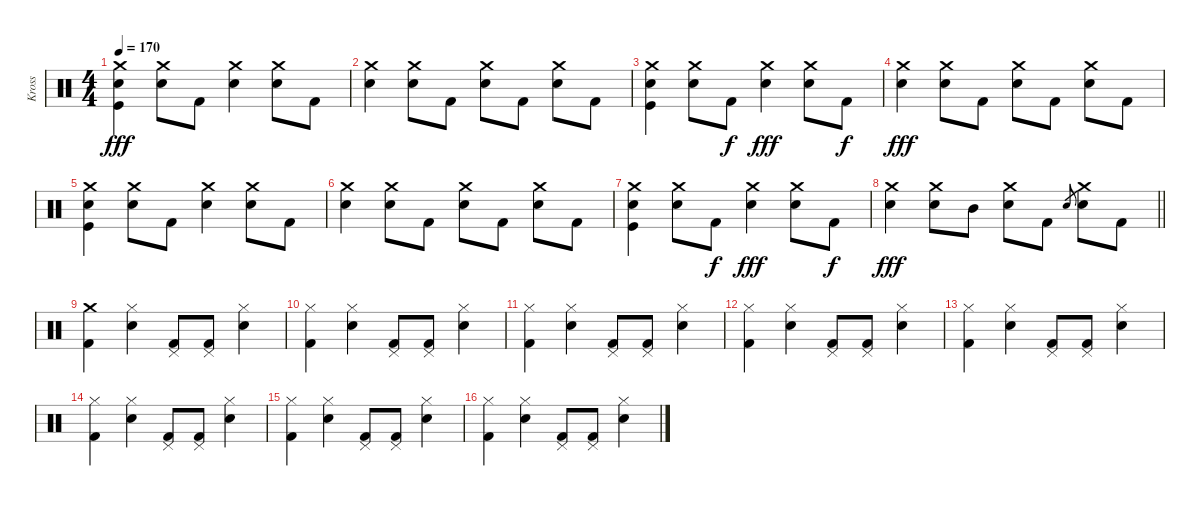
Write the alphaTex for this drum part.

\track ("Kross" "Kross") {instrument percussion}
\staff {score}
\articulation defaults
\ts (4 4)
\tempo 170
\clef neutral
\ks c
("Crash medium (hit)" "Electric Snare (hit)" "Kick (hit)").4{dy fff} ("Crash medium (hit)" "Electric Snare (hit)").8 "Kick (hit) 2".8 ("Crash medium (hit)" "Electric Snare (hit)").4 ("Crash medium (hit)" "Electric Snare (hit)").8 "Kick (hit) 2".8 |
("Crash medium (hit)" "Electric Snare (hit)").4 ("Crash medium (hit)" "Electric Snare (hit)").8 "Kick (hit) 2".8 ("Crash medium (hit)" "Electric Snare (hit)").8 "Kick (hit) 2".8 ("Crash medium (hit)" "Electric Snare (hit)").8 "Kick (hit) 2".8 |
("Crash medium (hit)" "Electric Snare (hit)" "Kick (hit)").4 ("Crash medium (hit)" "Electric Snare (hit)").8 "Kick (hit) 2".8{dy f} ("Crash medium (hit)" "Electric Snare (hit)").4{dy fff} ("Crash medium (hit)" "Electric Snare (hit)").8 "Kick (hit) 2".8{dy f} |
("Crash medium (hit)" "Electric Snare (hit)").4{dy fff} ("Crash medium (hit)" "Electric Snare (hit)").8 "Kick (hit) 2".8 ("Crash medium (hit)" "Electric Snare (hit)").8 "Kick (hit) 2".8 ("Crash medium (hit)" "Electric Snare (hit)").8 "Kick (hit) 2".8 |
("Crash medium (hit)" "Electric Snare (hit)" "Kick (hit)").4 ("Crash medium (hit)" "Electric Snare (hit)").8 "Kick (hit) 2".8 ("Crash medium (hit)" "Electric Snare (hit)").4 ("Crash medium (hit)" "Electric Snare (hit)").8 "Kick (hit) 2".8 |
("Crash medium (hit)" "Electric Snare (hit)").4 ("Crash medium (hit)" "Electric Snare (hit)").8 "Kick (hit) 2".8 ("Crash medium (hit)" "Electric Snare (hit)").8 "Kick (hit) 2".8 ("Crash medium (hit)" "Electric Snare (hit)").8 "Kick (hit) 2".8 |
("Crash medium (hit)" "Electric Snare (hit)" "Kick (hit)").4 ("Crash medium (hit)" "Electric Snare (hit)").8 "Kick (hit) 2".8{dy f} ("Crash medium (hit)" "Electric Snare (hit)").4{dy fff} ("Crash medium (hit)" "Electric Snare (hit)").8 "Kick (hit) 2".8{dy f} |
\barLineRight lightlight
("Crash medium (hit)" "Electric Snare (hit)").4{dy fff} ("Crash medium (hit)" "Electric Snare (hit)").8 "Mid Tom (hit)".8 ("Crash medium (hit)" "Electric Snare (hit)").8 "Kick (hit) 2".8 "Electric Snare (hit)".8{gr} ("Crash medium (hit)" "Electric Snare (hit)").8 "Kick (hit) 2".8 |
("Crash medium (hit)" "Kick (hit) 2").4 ("Hi-Hat (closed)" "Snare (hit) 2").4 ("Pedal Hi-Hat (hit)" "Kick (hit) 2").8 ("Pedal Hi-Hat (hit)" "Kick (hit) 2").8 ("Hi-Hat (closed)" "Snare (hit) 2").4 |
("Hi-Hat (closed)" "Kick (hit) 2").4 ("Hi-Hat (closed)" "Snare (hit) 2").4 ("Pedal Hi-Hat (hit)" "Kick (hit) 2").8 ("Pedal Hi-Hat (hit)" "Kick (hit) 2").8 ("Hi-Hat (closed)" "Snare (hit) 2").4 |
("Hi-Hat (closed)" "Kick (hit) 2").4 ("Hi-Hat (closed)" "Snare (hit) 2").4 ("Pedal Hi-Hat (hit)" "Kick (hit) 2").8 ("Pedal Hi-Hat (hit)" "Kick (hit) 2").8 ("Hi-Hat (closed)" "Snare (hit) 2").4 |
("Hi-Hat (closed)" "Kick (hit) 2").4 ("Hi-Hat (closed)" "Snare (hit) 2").4 ("Pedal Hi-Hat (hit)" "Kick (hit) 2").8 ("Pedal Hi-Hat (hit)" "Kick (hit) 2").8 ("Hi-Hat (closed)" "Snare (hit) 2").4 |
("Hi-Hat (closed)" "Kick (hit) 2").4 ("Hi-Hat (closed)" "Snare (hit) 2").4 ("Pedal Hi-Hat (hit)" "Kick (hit) 2").8 ("Pedal Hi-Hat (hit)" "Kick (hit) 2").8 ("Hi-Hat (closed)" "Snare (hit) 2").4 |
("Hi-Hat (closed)" "Kick (hit) 2").4 ("Hi-Hat (closed)" "Snare (hit) 2").4 ("Pedal Hi-Hat (hit)" "Kick (hit) 2").8 ("Pedal Hi-Hat (hit)" "Kick (hit) 2").8 ("Hi-Hat (closed)" "Snare (hit) 2").4 |
("Hi-Hat (closed)" "Kick (hit) 2").4 ("Hi-Hat (closed)" "Snare (hit) 2").4 ("Pedal Hi-Hat (hit)" "Kick (hit) 2").8 ("Pedal Hi-Hat (hit)" "Kick (hit) 2").8 ("Hi-Hat (closed)" "Snare (hit) 2").4 |
("Hi-Hat (closed)" "Kick (hit) 2").4 ("Hi-Hat (closed)" "Snare (hit) 2").4 ("Pedal Hi-Hat (hit)" "Kick (hit) 2").8 ("Pedal Hi-Hat (hit)" "Kick (hit) 2").8 ("Hi-Hat (closed)" "Snare (hit) 2").4
